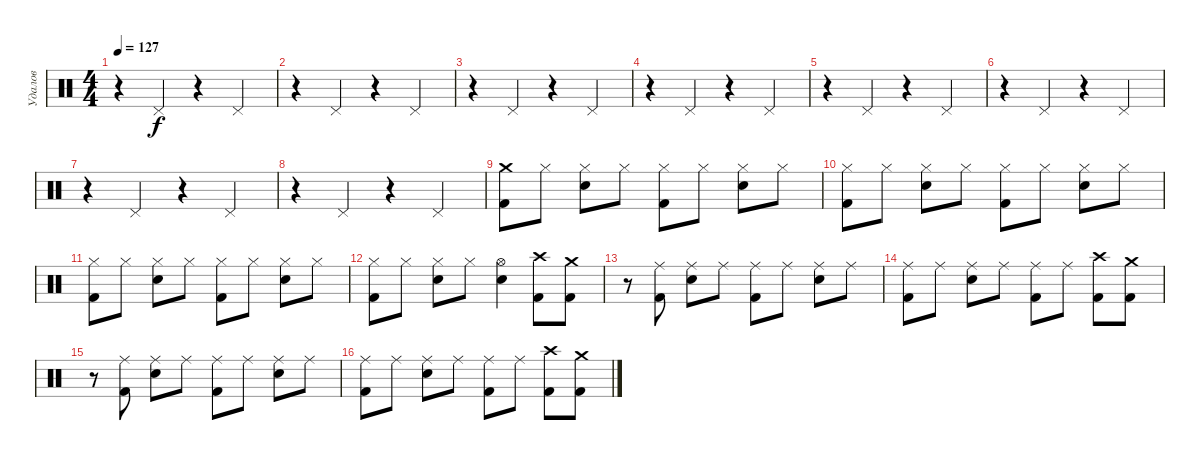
\track ("Удалов" "Удалов") {instrument percussion}
\staff {score}
\articulation defaults
\ts (4 4)
\tempo 127
\clef neutral
\ks c
r.4{dy f} "Pedal Hi-Hat (hit)".4 r.4 "Pedal Hi-Hat (hit)".4 |
r.4 "Pedal Hi-Hat (hit)".4 r.4 "Pedal Hi-Hat (hit)".4 |
r.4 "Pedal Hi-Hat (hit)".4 r.4 "Pedal Hi-Hat (hit)".4 |
r.4 "Pedal Hi-Hat (hit)".4 r.4 "Pedal Hi-Hat (hit)".4 |
r.4 "Pedal Hi-Hat (hit)".4 r.4 "Pedal Hi-Hat (hit)".4 |
r.4 "Pedal Hi-Hat (hit)".4 r.4 "Pedal Hi-Hat (hit)".4 |
r.4 "Pedal Hi-Hat (hit)".4 r.4 "Pedal Hi-Hat (hit)".4 |
r.4 "Pedal Hi-Hat (hit)".4 r.4 "Pedal Hi-Hat (hit)".4 |
("Crash medium (hit)" "Kick (hit) 2").8 "Hi-Hat (closed)".8 ("Hi-Hat (closed)" "Snare (hit) 2").8 "Hi-Hat (closed)".8 ("Hi-Hat (closed)" "Kick (hit) 2").8 "Hi-Hat (closed)".8 ("Hi-Hat (closed)" "Snare (hit) 2").8 "Hi-Hat (closed)".8 |
("Hi-Hat (closed)" "Kick (hit) 2").8 "Hi-Hat (closed)".8 ("Hi-Hat (closed)" "Snare (hit) 2").8 "Hi-Hat (closed)".8 ("Hi-Hat (closed)" "Kick (hit) 2").8 "Hi-Hat (closed)".8 ("Hi-Hat (closed)" "Snare (hit) 2").8 "Hi-Hat (closed)".8 |
("Hi-Hat (closed)" "Kick (hit) 2").8 "Hi-Hat (closed)".8 ("Hi-Hat (closed)" "Snare (hit) 2").8 "Hi-Hat (closed)".8 ("Hi-Hat (closed)" "Kick (hit) 2").8 "Hi-Hat (closed)".8 ("Hi-Hat (closed)" "Snare (hit) 2").8 "Hi-Hat (closed)".8 |
("Hi-Hat (closed)" "Kick (hit) 2").8 "Hi-Hat (closed)".8 ("Hi-Hat (closed)" "Snare (hit) 2").8 "Hi-Hat (closed)".8 ("Hi-Hat (open)" "Snare (hit) 2").4 ("Crash high (hit)" "Kick (hit) 2").8 ("Crash medium (hit)" "Kick (hit) 2").8 |
r.8 ("Ride (middle)" "Kick (hit) 2").8 ("Ride (middle)" "Snare (hit) 2").8 "Ride (middle)".8 ("Ride (middle)" "Kick (hit) 2").8 "Ride (middle)".8 ("Ride (middle)" "Snare (hit) 2").8 "Ride (middle)".8 |
("Ride (middle)" "Kick (hit) 2").8 "Ride (middle)".8 ("Ride (middle)" "Snare (hit) 2").8 "Ride (middle)".8 ("Ride (middle)" "Kick (hit) 2").8 "Ride (middle)".8 ("Crash high (hit)" "Kick (hit) 2").8 ("Crash medium (hit)" "Kick (hit) 2").8 |
r.8 ("Ride (middle)" "Kick (hit) 2").8 ("Ride (middle)" "Snare (hit) 2").8 "Ride (middle)".8 ("Ride (middle)" "Kick (hit) 2").8 "Ride (middle)".8 ("Ride (middle)" "Snare (hit) 2").8 "Ride (middle)".8 |
("Ride (middle)" "Kick (hit) 2").8 "Ride (middle)".8 ("Ride (middle)" "Snare (hit) 2").8 "Ride (middle)".8 ("Ride (middle)" "Kick (hit) 2").8 "Ride (middle)".8 ("Crash high (hit)" "Kick (hit) 2").8 ("Crash medium (hit)" "Kick (hit) 2").8
